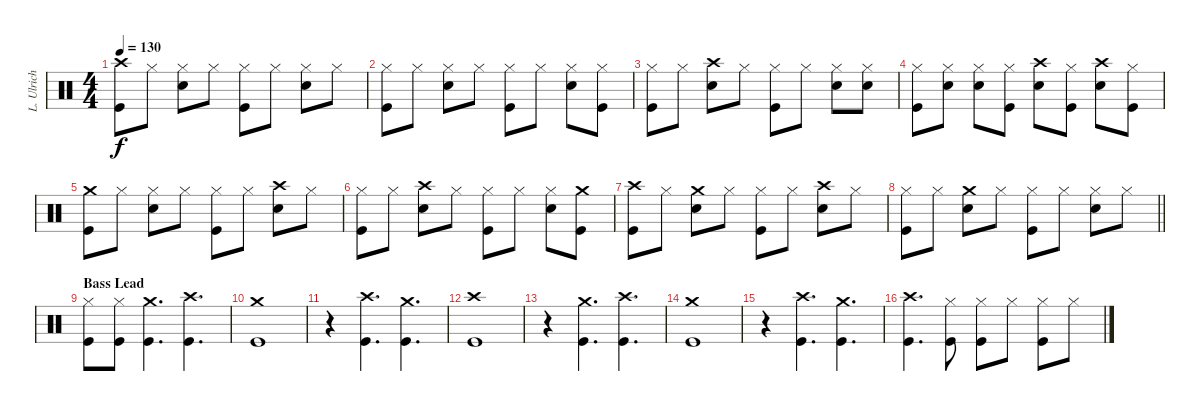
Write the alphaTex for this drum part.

\track ("L. Ulrich" "L. Ulrich") {instrument percussion}
\staff {score}
\articulation defaults
\ts (4 4)
\tempo 130
\clef neutral
\ks c
("Crash high (hit)" "Kick (hit)").8{dy f} "Hi-Hat (closed)".8 ("Hi-Hat (closed)" "Snare (hit) 2").8 "Hi-Hat (closed)".8 ("Hi-Hat (closed)" "Kick (hit)").8 "Hi-Hat (closed)".8 ("Hi-Hat (closed)" "Snare (hit) 2").8 "Hi-Hat (closed)".8 |
("Hi-Hat (closed)" "Kick (hit)").8 "Hi-Hat (closed)".8 ("Hi-Hat (closed)" "Snare (hit) 2").8 "Hi-Hat (closed)".8 ("Hi-Hat (closed)" "Kick (hit)").8 "Hi-Hat (closed)".8 ("Hi-Hat (closed)" "Snare (hit) 2").8 ("Hi-Hat (closed)" "Kick (hit)").8 |
("Hi-Hat (closed)" "Kick (hit)").8 "Hi-Hat (closed)".8 ("Crash high (hit)" "Snare (hit) 2").8 "Hi-Hat (closed)".8 ("Hi-Hat (closed)" "Kick (hit)").8 "Hi-Hat (closed)".8 ("Hi-Hat (closed)" "Snare (hit) 2").8 ("Hi-Hat (closed)" "Snare (hit) 2").8 |
("Hi-Hat (closed)" "Kick (hit)").8 ("Hi-Hat (closed)" "Snare (hit) 2").8 ("Hi-Hat (closed)" "Snare (hit) 2").8 ("Hi-Hat (closed)" "Kick (hit)").8 ("Crash high (hit)" "Snare (hit) 2").8 ("Hi-Hat (closed)" "Kick (hit)").8 ("Crash high (hit)" "Snare (hit) 2").8 ("Hi-Hat (closed)" "Kick (hit)").8 |
("Crash medium (hit)" "Kick (hit)").8 "Hi-Hat (closed)".8 ("Hi-Hat (closed)" "Snare (hit) 2").8 "Hi-Hat (closed)".8 ("Hi-Hat (closed)" "Kick (hit)").8 "Hi-Hat (closed)".8 ("Crash high (hit)" "Snare (hit) 2").8 "Hi-Hat (closed)".8 |
("Hi-Hat (closed)" "Kick (hit)").8 "Hi-Hat (closed)".8 ("Crash high (hit)" "Snare (hit) 2").8 "Hi-Hat (closed)".8 ("Hi-Hat (closed)" "Kick (hit)").8 "Hi-Hat (closed)".8 ("Hi-Hat (closed)" "Snare (hit) 2").8 ("Crash medium (hit)" "Kick (hit)").8 |
("Crash high (hit)" "Kick (hit)").8 "Hi-Hat (closed)".8 ("Crash medium (hit)" "Snare (hit) 2").8 "Hi-Hat (closed)".8 ("Hi-Hat (closed)" "Kick (hit)").8 "Hi-Hat (closed)".8 ("Crash high (hit)" "Snare (hit) 2").8 "Hi-Hat (closed)".8 |
\barLineRight lightlight
("Hi-Hat (closed)" "Kick (hit)").8 "Hi-Hat (closed)".8 ("Crash medium (hit)" "Snare (hit) 2").8 "Hi-Hat (closed)".8 ("Hi-Hat (closed)" "Kick (hit)").8 "Hi-Hat (closed)".8 ("Hi-Hat (closed)" "Snare (hit) 2").8 "Hi-Hat (closed)".8 |
\section ("" "Bass Lead")
("Hi-Hat (closed)" "Kick (hit)").8 ("Hi-Hat (closed)" "Kick (hit)").8 ("Crash medium (hit)" "Kick (hit)").4{d} ("Crash high (hit)" "Kick (hit)").4{d} |
("Crash medium (hit)" "Kick (hit)").1 |
r.4 ("Crash high (hit)" "Kick (hit)").4{d} ("Crash medium (hit)" "Kick (hit)").4{d} |
("Crash high (hit)" "Kick (hit)").1 |
r.4 ("Crash medium (hit)" "Kick (hit)").4{d} ("Crash high (hit)" "Kick (hit)").4{d} |
("Crash medium (hit)" "Kick (hit)").1 |
r.4 ("Crash high (hit)" "Kick (hit)").4{d} ("Crash medium (hit)" "Kick (hit)").4{d} |
("Crash high (hit)" "Kick (hit)").4{d} ("Hi-Hat (closed)" "Kick (hit)").8 ("Hi-Hat (closed)" "Kick (hit)").8 "Hi-Hat (closed)".8 ("Hi-Hat (closed)" "Kick (hit)").8 "Hi-Hat (closed)".8
